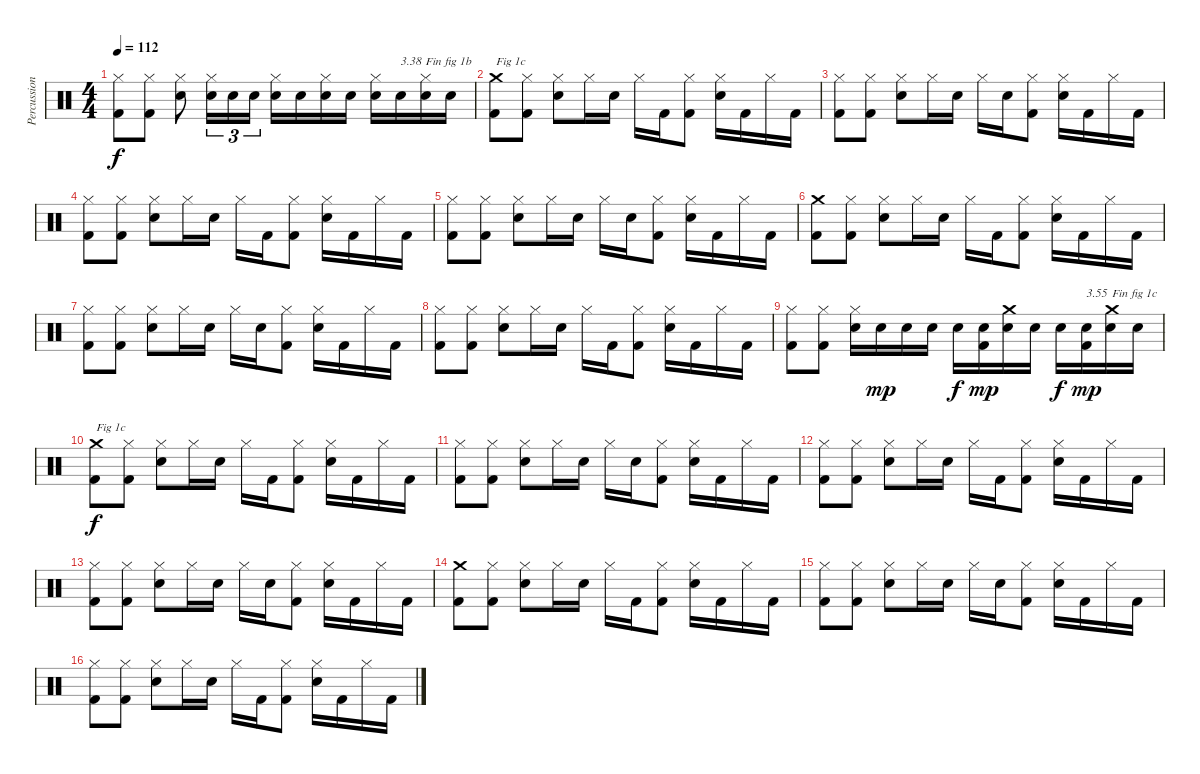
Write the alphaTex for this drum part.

\track ("Percussions" "Percussion") {instrument percussion}
\staff {score}
\articulation defaults
\ts (4 4)
\tempo 112
\clef neutral
\ks c
("Kick (hit) 2" "Hi-Hat (closed)").8{dy f} ("Kick (hit) 2" "Hi-Hat (closed)").8 ("Snare (hit) 2" "Hi-Hat (closed)").8 ("Snare (hit) 2" "Hi-Hat (closed)").16{tu (3 2)} "Snare (hit) 2".16{tu (3 2)} "Snare (hit) 2".16{tu (3 2)} ("Snare (hit) 2" "Hi-Hat (closed)").16 "Snare (hit) 2".16 ("Snare (hit) 2" "Hi-Hat (closed)").16 "Snare (hit) 2".16 ("Snare (hit) 2" "Hi-Hat (closed)").16 "Snare (hit) 2".16{txt "3.38"} ("Snare (hit) 2" "Hi-Hat (closed)").16{txt "Fin fig 1b"} "Snare (hit) 2".16 |
("Kick (hit) 2" "Crash medium (hit)").8{txt "Fig 1c"} ("Kick (hit) 2" "Hi-Hat (closed)").8 ("Snare (hit) 2" "Hi-Hat (closed)").8 "Hi-Hat (closed)".16 "Snare (hit) 2".16 "Hi-Hat (closed)".16 "Kick (hit) 2".16 ("Kick (hit) 2" "Hi-Hat (closed)").8 ("Snare (hit) 2" "Hi-Hat (closed)").16 "Kick (hit) 2".16 "Hi-Hat (closed)".16 "Kick (hit) 2".16 |
("Kick (hit) 2" "Hi-Hat (closed)").8 ("Kick (hit) 2" "Hi-Hat (closed)").8 ("Snare (hit) 2" "Hi-Hat (closed)").8 "Hi-Hat (closed)".16 "Snare (hit) 2".16 "Hi-Hat (closed)".16 "Snare (hit) 2".16 ("Kick (hit) 2" "Hi-Hat (closed)").8 ("Snare (hit) 2" "Hi-Hat (closed)").16 "Kick (hit) 2".16 "Hi-Hat (closed)".16 "Kick (hit) 2".16 |
("Kick (hit) 2" "Hi-Hat (closed)").8 ("Kick (hit) 2" "Hi-Hat (closed)").8 ("Snare (hit) 2" "Hi-Hat (closed)").8 "Hi-Hat (closed)".16 "Snare (hit) 2".16 "Hi-Hat (closed)".16 "Kick (hit) 2".16 ("Kick (hit) 2" "Hi-Hat (closed)").8 ("Snare (hit) 2" "Hi-Hat (closed)").16 "Kick (hit) 2".16 "Hi-Hat (closed)".16 "Kick (hit) 2".16 |
("Kick (hit) 2" "Hi-Hat (closed)").8 ("Kick (hit) 2" "Hi-Hat (closed)").8 ("Snare (hit) 2" "Hi-Hat (closed)").8 "Hi-Hat (closed)".16 "Snare (hit) 2".16 "Hi-Hat (closed)".16 "Snare (hit) 2".16 ("Kick (hit) 2" "Hi-Hat (closed)").8 ("Snare (hit) 2" "Hi-Hat (closed)").16 "Kick (hit) 2".16 "Hi-Hat (closed)".16 "Kick (hit) 2".16 |
("Kick (hit) 2" "Crash medium (hit)").8 ("Kick (hit) 2" "Hi-Hat (closed)").8 ("Snare (hit) 2" "Hi-Hat (closed)").8 "Hi-Hat (closed)".16 "Snare (hit) 2".16 "Hi-Hat (closed)".16 "Kick (hit) 2".16 ("Kick (hit) 2" "Hi-Hat (closed)").8 ("Snare (hit) 2" "Hi-Hat (closed)").16 "Kick (hit) 2".16 "Hi-Hat (closed)".16 "Kick (hit) 2".16 |
("Kick (hit) 2" "Hi-Hat (closed)").8 ("Kick (hit) 2" "Hi-Hat (closed)").8 ("Snare (hit) 2" "Hi-Hat (closed)").8 "Hi-Hat (closed)".16 "Snare (hit) 2".16 "Hi-Hat (closed)".16 "Snare (hit) 2".16 ("Kick (hit) 2" "Hi-Hat (closed)").8 ("Snare (hit) 2" "Hi-Hat (closed)").16 "Kick (hit) 2".16 "Hi-Hat (closed)".16 "Kick (hit) 2".16 |
("Kick (hit) 2" "Hi-Hat (closed)").8 ("Kick (hit) 2" "Hi-Hat (closed)").8 ("Snare (hit) 2" "Hi-Hat (closed)").8 "Hi-Hat (closed)".16 "Snare (hit) 2".16 "Hi-Hat (closed)".16 "Kick (hit) 2".16 ("Kick (hit) 2" "Hi-Hat (closed)").8 ("Snare (hit) 2" "Hi-Hat (closed)").16 "Kick (hit) 2".16 "Hi-Hat (closed)".16 "Kick (hit) 2".16 |
("Kick (hit) 2" "Hi-Hat (closed)").8 ("Kick (hit) 2" "Hi-Hat (closed)").8 ("Snare (hit) 2" "Hi-Hat (closed)").16 "Snare (hit) 2".16{dy mp} "Snare (hit) 2".16 "Snare (hit) 2".16 "Snare (hit) 2".16{dy f} ("Kick (hit) 2" "Snare (hit) 2").16{dy mp} ("Snare (hit) 2" "Crash medium (hit)").16 "Snare (hit) 2".16 "Snare (hit) 2".16{dy f} ("Kick (hit) 2" "Snare (hit) 2").16{txt "3.55" dy mp} ("Snare (hit) 2" "Crash medium (hit)").16{txt "Fin fig 1c"} "Snare (hit) 2".16 |
("Kick (hit) 2" "Crash medium (hit)").8{txt "Fig 1c" dy f} ("Kick (hit) 2" "Hi-Hat (closed)").8 ("Snare (hit) 2" "Hi-Hat (closed)").8 "Hi-Hat (closed)".16 "Snare (hit) 2".16 "Hi-Hat (closed)".16 "Kick (hit) 2".16 ("Kick (hit) 2" "Hi-Hat (closed)").8 ("Snare (hit) 2" "Hi-Hat (closed)").16 "Kick (hit) 2".16 "Hi-Hat (closed)".16 "Kick (hit) 2".16 |
("Kick (hit) 2" "Hi-Hat (closed)").8 ("Kick (hit) 2" "Hi-Hat (closed)").8 ("Snare (hit) 2" "Hi-Hat (closed)").8 "Hi-Hat (closed)".16 "Snare (hit) 2".16 "Hi-Hat (closed)".16 "Snare (hit) 2".16 ("Kick (hit) 2" "Hi-Hat (closed)").8 ("Snare (hit) 2" "Hi-Hat (closed)").16 "Kick (hit) 2".16 "Hi-Hat (closed)".16 "Kick (hit) 2".16 |
("Kick (hit) 2" "Hi-Hat (closed)").8 ("Kick (hit) 2" "Hi-Hat (closed)").8 ("Snare (hit) 2" "Hi-Hat (closed)").8 "Hi-Hat (closed)".16 "Snare (hit) 2".16 "Hi-Hat (closed)".16 "Kick (hit) 2".16 ("Kick (hit) 2" "Hi-Hat (closed)").8 ("Snare (hit) 2" "Hi-Hat (closed)").16 "Kick (hit) 2".16 "Hi-Hat (closed)".16 "Kick (hit) 2".16 |
("Kick (hit) 2" "Hi-Hat (closed)").8 ("Kick (hit) 2" "Hi-Hat (closed)").8 ("Snare (hit) 2" "Hi-Hat (closed)").8 "Hi-Hat (closed)".16 "Snare (hit) 2".16 "Hi-Hat (closed)".16 "Snare (hit) 2".16 ("Kick (hit) 2" "Hi-Hat (closed)").8 ("Snare (hit) 2" "Hi-Hat (closed)").16 "Kick (hit) 2".16 "Hi-Hat (closed)".16 "Kick (hit) 2".16 |
("Kick (hit) 2" "Crash medium (hit)").8 ("Kick (hit) 2" "Hi-Hat (closed)").8 ("Snare (hit) 2" "Hi-Hat (closed)").8 "Hi-Hat (closed)".16 "Snare (hit) 2".16 "Hi-Hat (closed)".16 "Kick (hit) 2".16 ("Kick (hit) 2" "Hi-Hat (closed)").8 ("Snare (hit) 2" "Hi-Hat (closed)").16 "Kick (hit) 2".16 "Hi-Hat (closed)".16 "Kick (hit) 2".16 |
("Kick (hit) 2" "Hi-Hat (closed)").8 ("Kick (hit) 2" "Hi-Hat (closed)").8 ("Snare (hit) 2" "Hi-Hat (closed)").8 "Hi-Hat (closed)".16 "Snare (hit) 2".16 "Hi-Hat (closed)".16 "Snare (hit) 2".16 ("Kick (hit) 2" "Hi-Hat (closed)").8 ("Snare (hit) 2" "Hi-Hat (closed)").16 "Kick (hit) 2".16 "Hi-Hat (closed)".16 "Kick (hit) 2".16 |
("Kick (hit) 2" "Hi-Hat (closed)").8 ("Kick (hit) 2" "Hi-Hat (closed)").8 ("Snare (hit) 2" "Hi-Hat (closed)").8 "Hi-Hat (closed)".16 "Snare (hit) 2".16 "Hi-Hat (closed)".16 "Kick (hit) 2".16 ("Kick (hit) 2" "Hi-Hat (closed)").8 ("Snare (hit) 2" "Hi-Hat (closed)").16 "Kick (hit) 2".16 "Hi-Hat (closed)".16 "Kick (hit) 2".16
